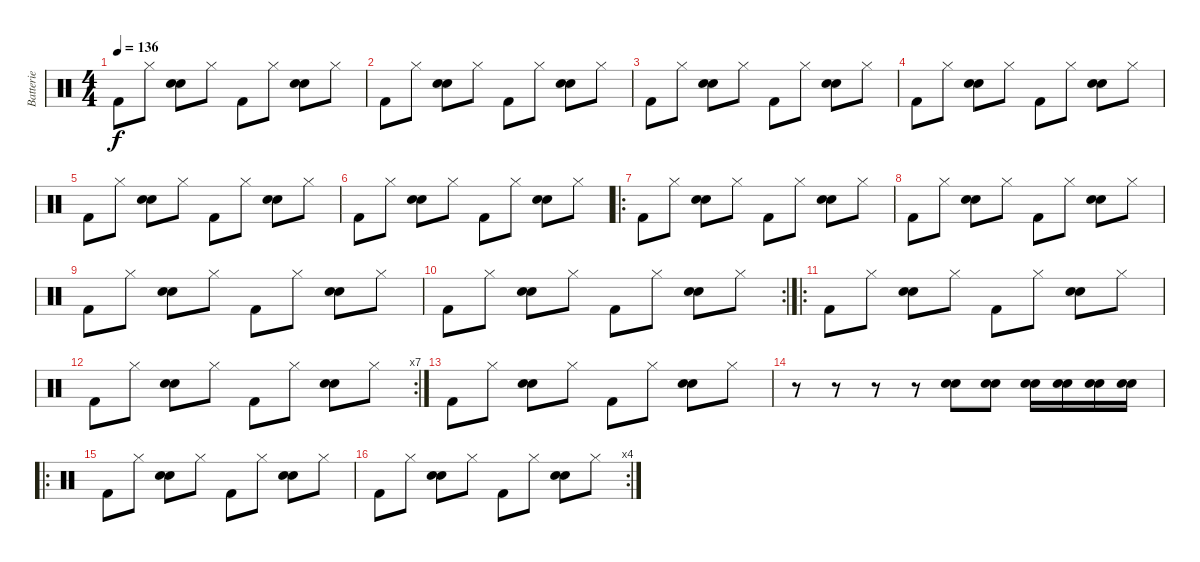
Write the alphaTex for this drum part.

\track ("Batterie" "Batterie") {instrument percussion}
\staff {score}
\articulation defaults
\ts (4 4)
\tempo 136
\clef neutral
\ks c "Kick (hit) 2".8{dy f} "Hi-Hat (closed)".8
("Electric Snare (hit)" "Snare (hit) 2").8 "Hi-Hat (closed)".8 "Kick (hit) 2".8 "Hi-Hat (closed)".8 ("Electric Snare (hit)" "Snare (hit) 2").8 "Hi-Hat (closed)".8 |
"Kick (hit) 2".8 "Hi-Hat (closed)".8 ("Electric Snare (hit)" "Snare (hit) 2").8 "Hi-Hat (closed)".8 "Kick (hit) 2".8 "Hi-Hat (closed)".8 ("Electric Snare (hit)" "Snare (hit) 2").8 "Hi-Hat (closed)".8 |
"Kick (hit) 2".8 "Hi-Hat (closed)".8 ("Electric Snare (hit)" "Snare (hit) 2").8 "Hi-Hat (closed)".8 "Kick (hit) 2".8 "Hi-Hat (closed)".8 ("Electric Snare (hit)" "Snare (hit) 2").8 "Hi-Hat (closed)".8 |
"Kick (hit) 2".8 "Hi-Hat (closed)".8 ("Electric Snare (hit)" "Snare (hit) 2").8 "Hi-Hat (closed)".8 "Kick (hit) 2".8 "Hi-Hat (closed)".8 ("Electric Snare (hit)" "Snare (hit) 2").8 "Hi-Hat (closed)".8 |
"Kick (hit) 2".8 "Hi-Hat (closed)".8 ("Electric Snare (hit)" "Snare (hit) 2").8 "Hi-Hat (closed)".8 "Kick (hit) 2".8 "Hi-Hat (closed)".8 ("Electric Snare (hit)" "Snare (hit) 2").8 "Hi-Hat (closed)".8 |
"Kick (hit) 2".8 "Hi-Hat (closed)".8 ("Electric Snare (hit)" "Snare (hit) 2").8 "Hi-Hat (closed)".8 "Kick (hit) 2".8 "Hi-Hat (closed)".8 ("Electric Snare (hit)" "Snare (hit) 2").8 "Hi-Hat (closed)".8 |
\ro "Kick (hit) 2".8 "Hi-Hat (closed)".8
("Electric Snare (hit)" "Snare (hit) 2").8 "Hi-Hat (closed)".8 "Kick (hit) 2".8 "Hi-Hat (closed)".8 ("Electric Snare (hit)" "Snare (hit) 2").8 "Hi-Hat (closed)".8 |
"Kick (hit) 2".8 "Hi-Hat (closed)".8 ("Electric Snare (hit)" "Snare (hit) 2").8 "Hi-Hat (closed)".8 "Kick (hit) 2".8 "Hi-Hat (closed)".8 ("Electric Snare (hit)" "Snare (hit) 2").8 "Hi-Hat (closed)".8 |
"Kick (hit) 2".8 "Hi-Hat (closed)".8 ("Electric Snare (hit)" "Snare (hit) 2").8 "Hi-Hat (closed)".8 "Kick (hit) 2".8 "Hi-Hat (closed)".8 ("Electric Snare (hit)" "Snare (hit) 2").8 "Hi-Hat (closed)".8 |
\rc 2 "Kick (hit) 2".8 "Hi-Hat (closed)".8
("Electric Snare (hit)" "Snare (hit) 2").8 "Hi-Hat (closed)".8 "Kick (hit) 2".8 "Hi-Hat (closed)".8 ("Electric Snare (hit)" "Snare (hit) 2").8 "Hi-Hat (closed)".8 |
\ro "Kick (hit) 2".8 "Hi-Hat (closed)".8
("Electric Snare (hit)" "Snare (hit) 2").8 "Hi-Hat (closed)".8 "Kick (hit) 2".8 "Hi-Hat (closed)".8 ("Electric Snare (hit)" "Snare (hit) 2").8 "Hi-Hat (closed)".8 |
\rc 7 "Kick (hit) 2".8 "Hi-Hat (closed)".8
("Electric Snare (hit)" "Snare (hit) 2").8 "Hi-Hat (closed)".8 "Kick (hit) 2".8 "Hi-Hat (closed)".8 ("Electric Snare (hit)" "Snare (hit) 2").8 "Hi-Hat (closed)".8 |
"Kick (hit) 2".8 "Hi-Hat (closed)".8 ("Electric Snare (hit)" "Snare (hit) 2").8 "Hi-Hat (closed)".8 "Kick (hit) 2".8 "Hi-Hat (closed)".8 ("Electric Snare (hit)" "Snare (hit) 2").8 "Hi-Hat (closed)".8 |
r.8 r.8 r.8 r.8 ("Electric Snare (hit)" "Snare (hit) 2").8 ("Electric Snare (hit)" "Snare (hit) 2").8 ("Electric Snare (hit)" "Snare (hit) 2").16 ("Electric Snare (hit)" "Snare (hit) 2").16 ("Electric Snare (hit)" "Snare (hit) 2").16 ("Electric Snare (hit)" "Snare (hit) 2").16 |
\ro "Kick (hit) 2".8 "Hi-Hat (closed)".8
("Electric Snare (hit)" "Snare (hit) 2").8 "Hi-Hat (closed)".8 "Kick (hit) 2".8 "Hi-Hat (closed)".8 ("Electric Snare (hit)" "Snare (hit) 2").8 "Hi-Hat (closed)".8 |
\rc 4 "Kick (hit) 2".8 "Hi-Hat (closed)".8
("Electric Snare (hit)" "Snare (hit) 2").8 "Hi-Hat (closed)".8 "Kick (hit) 2".8 "Hi-Hat (closed)".8 ("Electric Snare (hit)" "Snare (hit) 2").8 "Hi-Hat (closed)".8
